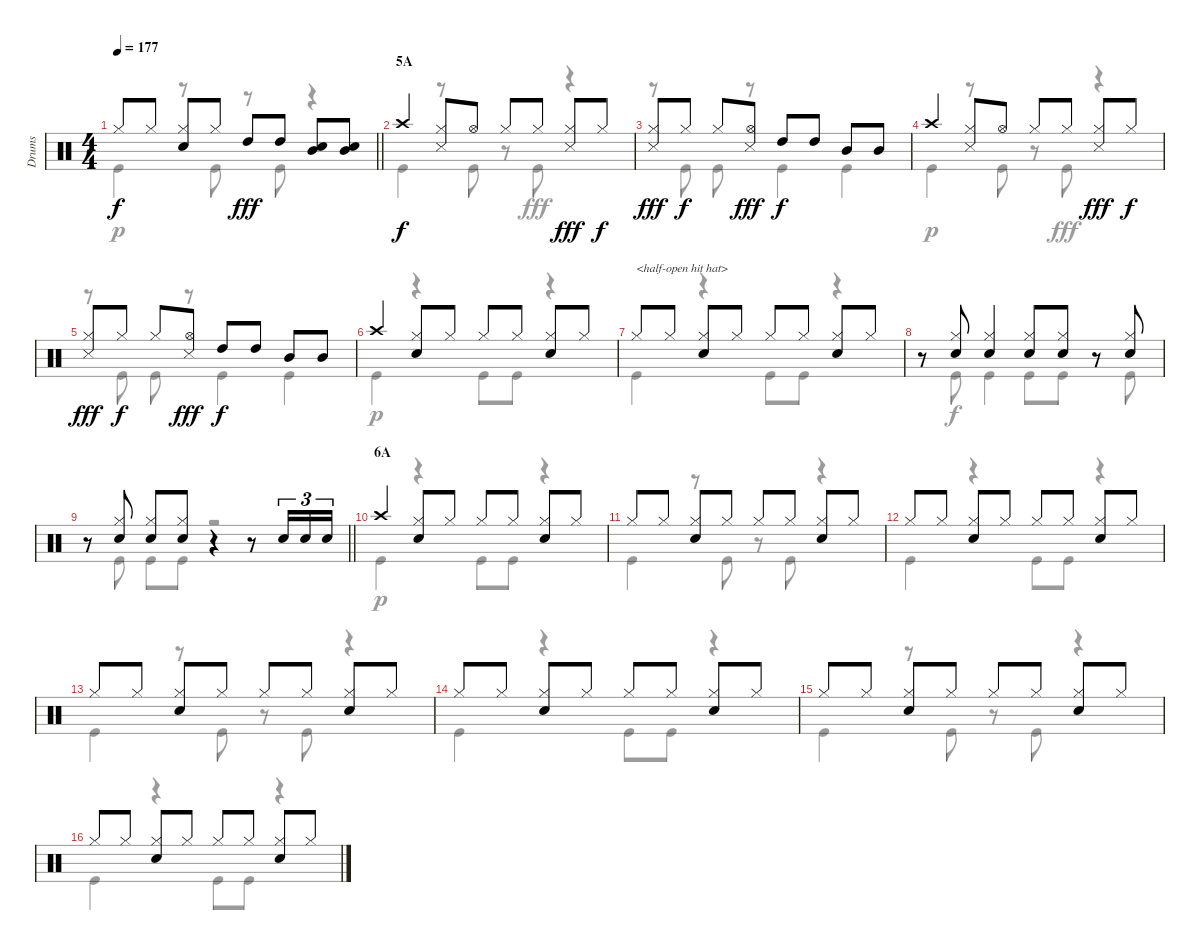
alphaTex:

\track ("Drums" "Drums") {instrument percussion}
\staff {score}
\articulation defaults
\voice
\ts (4 4)
\tempo 177
\clef neutral
\barLineRight lightlight
\ks c "Hi-Hat (closed)".8{dy f} "Hi-Hat (closed)".8
("Hi-Hat (closed)" "Snare (hit) 2").8 "Hi-Hat (closed)".8 "High Tom (hit)".8{dy fff} "High Tom (hit)".8 ("Mid Tom (hit)" "Snare (hit) 2").8 ("Mid Tom (hit)" "Snare (hit) 2").8 |
\section ("" "5A")
"Crash high (hit)".4{dy f} ("Hi-Hat (closed)" "Snare (side stick) 3").8 "Hi-Hat (open)".8 "Hi-Hat (closed)".8 "Hi-Hat (closed)".8 ("Hi-Hat (closed)" "Snare (side stick) 3").8{dy fff} "Hi-Hat (closed)".8{dy f} |
("Hi-Hat (closed)" "Snare (side stick) 3").8{dy fff} "Hi-Hat (closed)".8{dy f} "Hi-Hat (closed)".8 ("Hi-Hat (open)" "Snare (side stick) 3").8{dy fff} "High Tom (hit)".8{dy f} "High Tom (hit)".8 "Mid Tom (hit)".8 "Mid Tom (hit)".8 |
"Crash high (hit)".4 ("Hi-Hat (closed)" "Snare (side stick) 3").8 "Hi-Hat (open)".8 "Hi-Hat (closed)".8 "Hi-Hat (closed)".8 ("Hi-Hat (closed)" "Snare (side stick) 3").8{dy fff} "Hi-Hat (closed)".8{dy f} |
("Hi-Hat (closed)" "Snare (side stick) 3").8{dy fff} "Hi-Hat (closed)".8{dy f} "Hi-Hat (closed)".8 ("Hi-Hat (open)" "Snare (side stick) 3").8{dy fff} "High Tom (hit)".8{dy f} "High Tom (hit)".8 "Mid Tom (hit)".8 "Mid Tom (hit)".8 |
"Crash high (hit)".4 ("Hi-Hat (closed)" "Snare (hit) 2").8 "Hi-Hat (closed)".8 "Hi-Hat (closed)".8 "Hi-Hat (closed)".8 ("Hi-Hat (closed)" "Snare (hit) 2").8 "Hi-Hat (closed)".8 |
"Hi-Hat (closed)".8{txt "<half-open hit hat>"} "Hi-Hat (closed)".8 ("Hi-Hat (closed)" "Snare (hit) 2").8 "Hi-Hat (closed)".8 "Hi-Hat (closed)".8 "Hi-Hat (closed)".8 ("Hi-Hat (closed)" "Snare (hit) 2").8 "Hi-Hat (closed)".8 |
r.8 ("Hi-Hat (closed)" "Snare (hit) 2").8 ("Hi-Hat (closed)" "Snare (hit) 2").4 ("Hi-Hat (closed)" "Snare (hit) 2").8 ("Hi-Hat (closed)" "Snare (hit) 2").8 r.8 ("Hi-Hat (closed)" "Snare (hit) 2").8 |
\barLineRight lightlight
r.8 ("Hi-Hat (closed)" "Snare (hit) 2").8 ("Hi-Hat (closed)" "Snare (hit) 2").8 ("Hi-Hat (closed)" "Snare (hit) 2").8 r.4 r.8 "Snare (hit) 2".16{tu (3 2)} "Snare (hit) 2".16{tu (3 2)} "Snare (hit) 2".16{tu (3 2)} |
\section ("" "6A")
"Crash high (hit)".4 ("Hi-Hat (closed)" "Snare (hit) 2").8 "Hi-Hat (closed)".8 "Hi-Hat (closed)".8 "Hi-Hat (closed)".8 ("Hi-Hat (closed)" "Snare (hit) 2").8 "Hi-Hat (closed)".8 |
"Hi-Hat (closed)".8 "Hi-Hat (closed)".8 ("Hi-Hat (closed)" "Snare (hit) 2").8 "Hi-Hat (closed)".8 "Hi-Hat (closed)".8 "Hi-Hat (closed)".8 ("Hi-Hat (closed)" "Snare (hit) 2").8 "Hi-Hat (closed)".8 |
"Hi-Hat (closed)".8 "Hi-Hat (closed)".8 ("Hi-Hat (closed)" "Snare (hit) 2").8 "Hi-Hat (closed)".8 "Hi-Hat (closed)".8 "Hi-Hat (closed)".8 ("Hi-Hat (closed)" "Snare (hit) 2").8 "Hi-Hat (closed)".8 |
"Hi-Hat (closed)".8 "Hi-Hat (closed)".8 ("Hi-Hat (closed)" "Snare (hit) 2").8 "Hi-Hat (closed)".8 "Hi-Hat (closed)".8 "Hi-Hat (closed)".8 ("Hi-Hat (closed)" "Snare (hit) 2").8 "Hi-Hat (closed)".8 |
"Hi-Hat (closed)".8 "Hi-Hat (closed)".8 ("Hi-Hat (closed)" "Snare (hit) 2").8 "Hi-Hat (closed)".8 "Hi-Hat (closed)".8 "Hi-Hat (closed)".8 ("Hi-Hat (closed)" "Snare (hit) 2").8 "Hi-Hat (closed)".8 |
"Hi-Hat (closed)".8 "Hi-Hat (closed)".8 ("Hi-Hat (closed)" "Snare (hit) 2").8 "Hi-Hat (closed)".8 "Hi-Hat (closed)".8 "Hi-Hat (closed)".8 ("Hi-Hat (closed)" "Snare (hit) 2").8 "Hi-Hat (closed)".8 |
"Hi-Hat (closed)".8 "Hi-Hat (closed)".8 ("Hi-Hat (closed)" "Snare (hit) 2").8 "Hi-Hat (closed)".8 "Hi-Hat (closed)".8 "Hi-Hat (closed)".8 ("Hi-Hat (closed)" "Snare (hit) 2").8 "Hi-Hat (closed)".8
\voice
\clef neutral
\ottava regular
\simile none
\barLineRight lightlight
\ks c "Kick (hit)".4{dy p}
r.8 "Kick (hit)".8 r.8 "Kick (hit)".8 r.4 |
"Kick (hit)".4 r.8 "Kick (hit)".8 r.8 "Kick (hit)".8{dy fff} r.4 |
r.8 "Kick (hit)".8 "Kick (hit)".8 r.8 "Kick (hit)".4 "Kick (hit)".4 |
"Kick (hit)".4{dy p} r.8 "Kick (hit)".8 r.8 "Kick (hit)".8{dy fff} r.4 |
r.8 "Kick (hit)".8 "Kick (hit)".8 r.8 "Kick (hit)".4 "Kick (hit)".4 |
"Kick (hit)".4{dy p} r.4 "Kick (hit)".8 "Kick (hit)".8 r.4 |
"Kick (hit)".4 r.4 "Kick (hit)".8 "Kick (hit)".8 r.4 |
r.8 "Kick (hit)".8{dy f} "Kick (hit)".4 "Kick (hit)".8 "Kick (hit)".8 r.8 "Kick (hit)".8 |
\barLineRight lightlight
r.8 "Kick (hit)".8 "Kick (hit)".8 "Kick (hit)".8 r.2 |
"Kick (hit)".4{dy p} r.4 "Kick (hit)".8 "Kick (hit)".8 r.4 |
"Kick (hit)".4 r.8 "Kick (hit)".8 r.8 "Kick (hit)".8 r.4 |
"Kick (hit)".4 r.4 "Kick (hit)".8 "Kick (hit)".8 r.4 |
"Kick (hit)".4 r.8 "Kick (hit)".8 r.8 "Kick (hit)".8 r.4 |
"Kick (hit)".4 r.4 "Kick (hit)".8 "Kick (hit)".8 r.4 |
"Kick (hit)".4 r.8 "Kick (hit)".8 r.8 "Kick (hit)".8 r.4 |
"Kick (hit)".4 r.4 "Kick (hit)".8 "Kick (hit)".8 r.4
